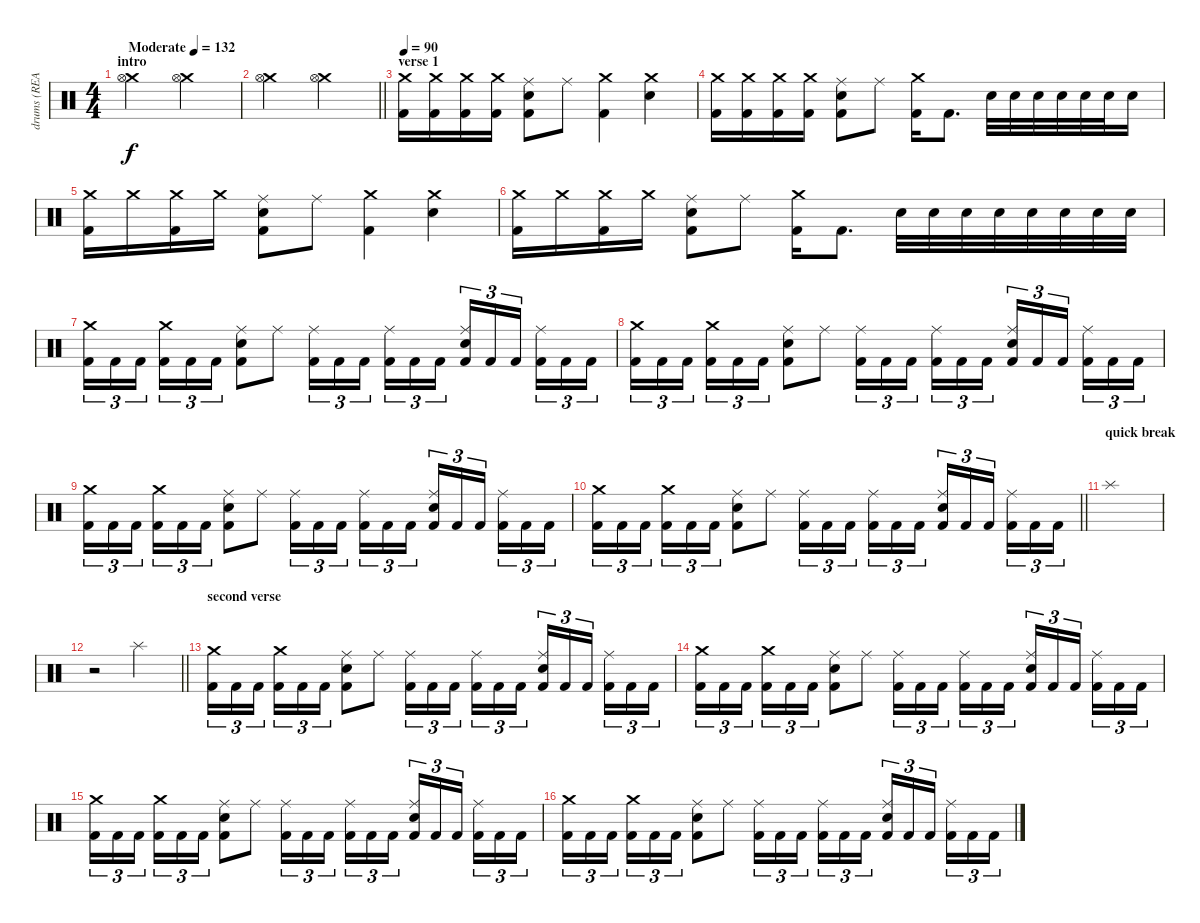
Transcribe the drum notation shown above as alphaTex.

\track ("drums (REAL simple)" "drums (REA") {instrument percussion}
\staff {score}
\articulation defaults
\ts (4 4)
\section ("" "intro")
\tempo (132 "Moderate")
\clef neutral
\ks c
("Crash medium (hit)" "Hi-Hat (open)").2{dy f} ("Crash medium (hit)" "Hi-Hat (open)").2 |
\barLineRight lightlight
("Crash medium (hit)" "Hi-Hat (open)").2 ("Crash medium (hit)" "Hi-Hat (open)").2 |
\section ("" "verse 1")
\tempo 90
("Crash medium (hit)" "Kick (hit) 2").16 ("Crash medium (hit)" "Kick (hit) 2").16 ("Crash medium (hit)" "Kick (hit) 2").16 ("Crash medium (hit)" "Kick (hit) 2").16 ("Ride (middle)" "Electric Snare (hit)" "Kick (hit) 2").8 "Ride (middle)".8 ("Crash medium (hit)" "Kick (hit) 2").4 ("Crash medium (hit)" "Electric Snare (hit)").4 |
("Crash medium (hit)" "Kick (hit) 2").16 ("Crash medium (hit)" "Kick (hit) 2").16 ("Crash medium (hit)" "Kick (hit) 2").16 ("Crash medium (hit)" "Kick (hit) 2").16 ("Ride (middle)" "Electric Snare (hit)" "Kick (hit) 2").8 "Ride (middle)".8 ("Crash medium (hit)" "Kick (hit) 2").16 "Kick (hit) 2".8{d} "Electric Snare (hit)".32 "Electric Snare (hit)".32 "Electric Snare (hit)".32 "Electric Snare (hit)".32 "Electric Snare (hit)".32 "Electric Snare (hit)".32 "Electric Snare (hit)".16 |
("Crash medium (hit)" "Kick (hit) 2").16 "Crash medium (hit)".16 ("Crash medium (hit)" "Kick (hit) 2").16 "Crash medium (hit)".16 ("Ride (middle)" "Electric Snare (hit)" "Kick (hit) 2").8 "Ride (middle)".8 ("Crash medium (hit)" "Kick (hit) 2").4 ("Crash medium (hit)" "Electric Snare (hit)").4 |
("Crash medium (hit)" "Kick (hit) 2").16 "Crash medium (hit)".16 ("Crash medium (hit)" "Kick (hit) 2").16 "Crash medium (hit)".16 ("Ride (middle)" "Electric Snare (hit)" "Kick (hit) 2").8 "Ride (middle)".8 ("Crash medium (hit)" "Kick (hit) 2").16 "Kick (hit) 2".8{d} "Electric Snare (hit)".32 "Electric Snare (hit)".32 "Electric Snare (hit)".32 "Electric Snare (hit)".32 "Electric Snare (hit)".32 "Electric Snare (hit)".32 "Electric Snare (hit)".32 "Electric Snare (hit)".32 |
("Crash medium (hit)" "Kick (hit) 2").16{tu (3 2)} "Kick (hit) 2".16{tu (3 2)} "Kick (hit) 2".16{tu (3 2) beam splitsecondary} ("Crash medium (hit)" "Kick (hit) 2").16{tu (3 2)} "Kick (hit) 2".16{tu (3 2)} "Kick (hit) 2".16{tu (3 2)} ("Ride (middle)" "Electric Snare (hit)" "Kick (hit) 2").8 "Ride (middle)".8 ("Ride (middle)" "Kick (hit) 2").16{tu (3 2)} "Kick (hit) 2".16{tu (3 2)} "Kick (hit) 2".16{tu (3 2) beam splitsecondary} ("Ride (middle)" "Kick (hit) 2").16{tu (3 2)} "Kick (hit) 2".16{tu (3 2)} "Kick (hit) 2".16{tu (3 2)} ("Ride (middle)" "Electric Snare (hit)" "Kick (hit) 2").16{tu (3 2)} "Kick (hit) 2".16{tu (3 2)} "Kick (hit) 2".16{tu (3 2) beam splitsecondary} ("Ride (middle)" "Kick (hit) 2").16{tu (3 2)} "Kick (hit) 2".16{tu (3 2)} "Kick (hit) 2".16{tu (3 2)} |
("Crash medium (hit)" "Kick (hit) 2").16{tu (3 2)} "Kick (hit) 2".16{tu (3 2)} "Kick (hit) 2".16{tu (3 2) beam splitsecondary} ("Crash medium (hit)" "Kick (hit) 2").16{tu (3 2)} "Kick (hit) 2".16{tu (3 2)} "Kick (hit) 2".16{tu (3 2)} ("Ride (middle)" "Electric Snare (hit)" "Kick (hit) 2").8 "Ride (middle)".8 ("Ride (middle)" "Kick (hit) 2").16{tu (3 2)} "Kick (hit) 2".16{tu (3 2)} "Kick (hit) 2".16{tu (3 2) beam splitsecondary} ("Ride (middle)" "Kick (hit) 2").16{tu (3 2)} "Kick (hit) 2".16{tu (3 2)} "Kick (hit) 2".16{tu (3 2)} ("Ride (middle)" "Electric Snare (hit)" "Kick (hit) 2").16{tu (3 2)} "Kick (hit) 2".16{tu (3 2)} "Kick (hit) 2".16{tu (3 2) beam splitsecondary} ("Ride (middle)" "Kick (hit) 2").16{tu (3 2)} "Kick (hit) 2".16{tu (3 2)} "Kick (hit) 2".16{tu (3 2)} |
("Crash medium (hit)" "Kick (hit) 2").16{tu (3 2)} "Kick (hit) 2".16{tu (3 2)} "Kick (hit) 2".16{tu (3 2) beam splitsecondary} ("Crash medium (hit)" "Kick (hit) 2").16{tu (3 2)} "Kick (hit) 2".16{tu (3 2)} "Kick (hit) 2".16{tu (3 2)} ("Ride (middle)" "Electric Snare (hit)" "Kick (hit) 2").8 "Ride (middle)".8 ("Ride (middle)" "Kick (hit) 2").16{tu (3 2)} "Kick (hit) 2".16{tu (3 2)} "Kick (hit) 2".16{tu (3 2) beam splitsecondary} ("Ride (middle)" "Kick (hit) 2").16{tu (3 2)} "Kick (hit) 2".16{tu (3 2)} "Kick (hit) 2".16{tu (3 2)} ("Ride (middle)" "Electric Snare (hit)" "Kick (hit) 2").16{tu (3 2)} "Kick (hit) 2".16{tu (3 2)} "Kick (hit) 2".16{tu (3 2) beam splitsecondary} ("Ride (middle)" "Kick (hit) 2").16{tu (3 2)} "Kick (hit) 2".16{tu (3 2)} "Kick (hit) 2".16{tu (3 2)} |
\barLineRight lightlight
("Crash medium (hit)" "Kick (hit) 2").16{tu (3 2)} "Kick (hit) 2".16{tu (3 2)} "Kick (hit) 2".16{tu (3 2) beam splitsecondary} ("Crash medium (hit)" "Kick (hit) 2").16{tu (3 2)} "Kick (hit) 2".16{tu (3 2)} "Kick (hit) 2".16{tu (3 2)} ("Ride (middle)" "Electric Snare (hit)" "Kick (hit) 2").8 "Ride (middle)".8 ("Ride (middle)" "Kick (hit) 2").16{tu (3 2)} "Kick (hit) 2".16{tu (3 2)} "Kick (hit) 2".16{tu (3 2) beam splitsecondary} ("Ride (middle)" "Kick (hit) 2").16{tu (3 2)} "Kick (hit) 2".16{tu (3 2)} "Kick (hit) 2".16{tu (3 2)} ("Ride (middle)" "Electric Snare (hit)" "Kick (hit) 2").16{tu (3 2)} "Kick (hit) 2".16{tu (3 2)} "Kick (hit) 2".16{tu (3 2) beam splitsecondary} ("Ride (middle)" "Kick (hit) 2").16{tu (3 2)} "Kick (hit) 2".16{tu (3 2)} "Kick (hit) 2".16{tu (3 2)} |
\section ("" "quick break")
"Splash (hit)".1 |
\barLineRight lightlight
r.2 "Splash (hit)".2 |
\section ("" "second verse")
("Crash medium (hit)" "Kick (hit) 2").16{tu (3 2)} "Kick (hit) 2".16{tu (3 2)} "Kick (hit) 2".16{tu (3 2) beam splitsecondary} ("Crash medium (hit)" "Kick (hit) 2").16{tu (3 2)} "Kick (hit) 2".16{tu (3 2)} "Kick (hit) 2".16{tu (3 2)} ("Ride (middle)" "Electric Snare (hit)" "Kick (hit) 2").8 "Ride (middle)".8 ("Ride (middle)" "Kick (hit) 2").16{tu (3 2)} "Kick (hit) 2".16{tu (3 2)} "Kick (hit) 2".16{tu (3 2) beam splitsecondary} ("Ride (middle)" "Kick (hit) 2").16{tu (3 2)} "Kick (hit) 2".16{tu (3 2)} "Kick (hit) 2".16{tu (3 2)} ("Ride (middle)" "Electric Snare (hit)" "Kick (hit) 2").16{tu (3 2)} "Kick (hit) 2".16{tu (3 2)} "Kick (hit) 2".16{tu (3 2) beam splitsecondary} ("Ride (middle)" "Kick (hit) 2").16{tu (3 2)} "Kick (hit) 2".16{tu (3 2)} "Kick (hit) 2".16{tu (3 2)} |
("Crash medium (hit)" "Kick (hit) 2").16{tu (3 2)} "Kick (hit) 2".16{tu (3 2)} "Kick (hit) 2".16{tu (3 2) beam splitsecondary} ("Crash medium (hit)" "Kick (hit) 2").16{tu (3 2)} "Kick (hit) 2".16{tu (3 2)} "Kick (hit) 2".16{tu (3 2)} ("Ride (middle)" "Electric Snare (hit)" "Kick (hit) 2").8 "Ride (middle)".8 ("Ride (middle)" "Kick (hit) 2").16{tu (3 2)} "Kick (hit) 2".16{tu (3 2)} "Kick (hit) 2".16{tu (3 2) beam splitsecondary} ("Ride (middle)" "Kick (hit) 2").16{tu (3 2)} "Kick (hit) 2".16{tu (3 2)} "Kick (hit) 2".16{tu (3 2)} ("Ride (middle)" "Electric Snare (hit)" "Kick (hit) 2").16{tu (3 2)} "Kick (hit) 2".16{tu (3 2)} "Kick (hit) 2".16{tu (3 2) beam splitsecondary} ("Ride (middle)" "Kick (hit) 2").16{tu (3 2)} "Kick (hit) 2".16{tu (3 2)} "Kick (hit) 2".16{tu (3 2)} |
("Crash medium (hit)" "Kick (hit) 2").16{tu (3 2)} "Kick (hit) 2".16{tu (3 2)} "Kick (hit) 2".16{tu (3 2) beam splitsecondary} ("Crash medium (hit)" "Kick (hit) 2").16{tu (3 2)} "Kick (hit) 2".16{tu (3 2)} "Kick (hit) 2".16{tu (3 2)} ("Ride (middle)" "Electric Snare (hit)" "Kick (hit) 2").8 "Ride (middle)".8 ("Ride (middle)" "Kick (hit) 2").16{tu (3 2)} "Kick (hit) 2".16{tu (3 2)} "Kick (hit) 2".16{tu (3 2) beam splitsecondary} ("Ride (middle)" "Kick (hit) 2").16{tu (3 2)} "Kick (hit) 2".16{tu (3 2)} "Kick (hit) 2".16{tu (3 2)} ("Ride (middle)" "Electric Snare (hit)" "Kick (hit) 2").16{tu (3 2)} "Kick (hit) 2".16{tu (3 2)} "Kick (hit) 2".16{tu (3 2) beam splitsecondary} ("Ride (middle)" "Kick (hit) 2").16{tu (3 2)} "Kick (hit) 2".16{tu (3 2)} "Kick (hit) 2".16{tu (3 2)} |
("Crash medium (hit)" "Kick (hit) 2").16{tu (3 2)} "Kick (hit) 2".16{tu (3 2)} "Kick (hit) 2".16{tu (3 2) beam splitsecondary} ("Crash medium (hit)" "Kick (hit) 2").16{tu (3 2)} "Kick (hit) 2".16{tu (3 2)} "Kick (hit) 2".16{tu (3 2)} ("Ride (middle)" "Electric Snare (hit)" "Kick (hit) 2").8 "Ride (middle)".8 ("Ride (middle)" "Kick (hit) 2").16{tu (3 2)} "Kick (hit) 2".16{tu (3 2)} "Kick (hit) 2".16{tu (3 2) beam splitsecondary} ("Ride (middle)" "Kick (hit) 2").16{tu (3 2)} "Kick (hit) 2".16{tu (3 2)} "Kick (hit) 2".16{tu (3 2)} ("Ride (middle)" "Electric Snare (hit)" "Kick (hit) 2").16{tu (3 2)} "Kick (hit) 2".16{tu (3 2)} "Kick (hit) 2".16{tu (3 2) beam splitsecondary} ("Ride (middle)" "Kick (hit) 2").16{tu (3 2)} "Kick (hit) 2".16{tu (3 2)} "Kick (hit) 2".16{tu (3 2)}
